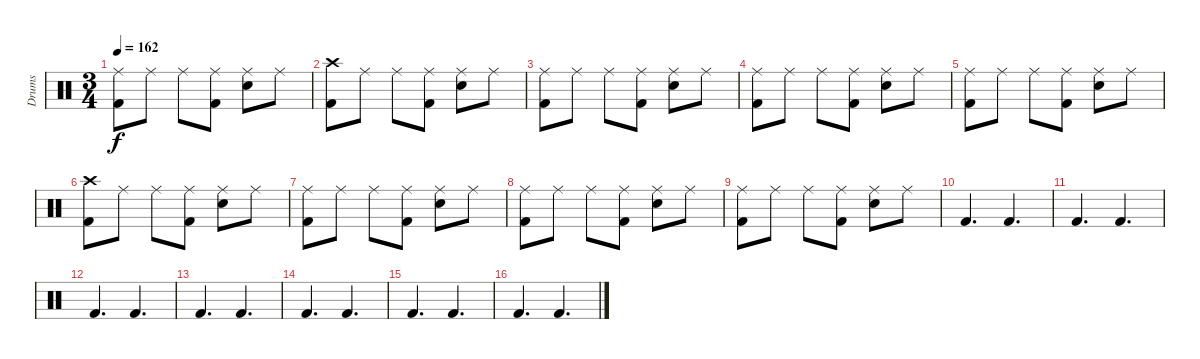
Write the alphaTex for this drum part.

\track ("Drums" "Drums") {instrument percussion}
\staff {score}
\articulation defaults
\ts (3 4)
\tempo 162
\clef neutral
\ks c
("Ride (middle)" "Kick (hit) 2").8{dy f} "Ride (middle)".8 "Ride (middle)".8 ("Ride (middle)" "Kick (hit) 2").8 ("Ride (middle)" "Snare (hit) 2").8 "Ride (middle)".8 |
("Crash high (hit)" "Kick (hit) 2").8 "Ride (middle)".8 "Ride (middle)".8 ("Ride (middle)" "Kick (hit) 2").8 ("Ride (middle)" "Snare (hit) 2").8 "Ride (middle)".8 |
("Ride (middle)" "Kick (hit) 2").8 "Ride (middle)".8 "Ride (middle)".8 ("Ride (middle)" "Kick (hit) 2").8 ("Ride (middle)" "Snare (hit) 2").8 "Ride (middle)".8 |
("Ride (middle)" "Kick (hit) 2").8 "Ride (middle)".8 "Ride (middle)".8 ("Ride (middle)" "Kick (hit) 2").8 ("Ride (middle)" "Snare (hit) 2").8 "Ride (middle)".8 |
("Ride (middle)" "Kick (hit) 2").8 "Ride (middle)".8 "Ride (middle)".8 ("Ride (middle)" "Kick (hit) 2").8 ("Ride (middle)" "Snare (hit) 2").8 "Ride (middle)".8 |
("Crash high (hit)" "Kick (hit) 2").8 "Ride (middle)".8 "Ride (middle)".8 ("Ride (middle)" "Kick (hit) 2").8 ("Ride (middle)" "Snare (hit) 2").8 "Ride (middle)".8 |
("Ride (middle)" "Kick (hit) 2").8 "Ride (middle)".8 "Ride (middle)".8 ("Ride (middle)" "Kick (hit) 2").8 ("Ride (middle)" "Snare (hit) 2").8 "Ride (middle)".8 |
("Ride (middle)" "Kick (hit) 2").8 "Ride (middle)".8 "Ride (middle)".8 ("Ride (middle)" "Kick (hit) 2").8 ("Ride (middle)" "Snare (hit) 2").8 "Ride (middle)".8 |
("Ride (middle)" "Kick (hit) 2").8 "Ride (middle)".8 "Ride (middle)".8 ("Ride (middle)" "Kick (hit) 2").8 ("Ride (middle)" "Snare (hit) 2").8 "Ride (middle)".8 |
"Kick (hit) 2".4{d} "Kick (hit) 2".4{d} |
"Kick (hit) 2".4{d} "Kick (hit) 2".4{d} |
"Kick (hit) 2".4{d} "Kick (hit) 2".4{d} |
"Kick (hit) 2".4{d} "Kick (hit) 2".4{d} |
"Kick (hit) 2".4{d} "Kick (hit) 2".4{d} |
"Kick (hit) 2".4{d} "Kick (hit) 2".4{d} |
"Kick (hit) 2".4{d} "Kick (hit) 2".4{d}
